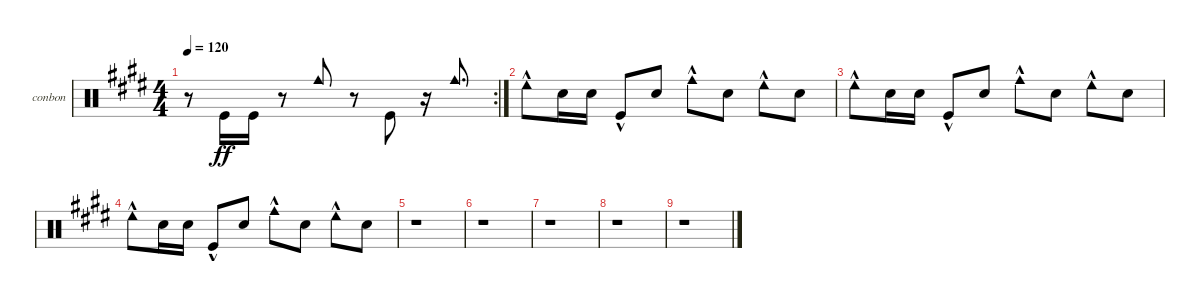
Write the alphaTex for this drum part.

\defaultSystemsLayout 4
\bracketExtendMode groupsimilarinstruments
\firstSystemTrackNameOrientation horizontal
\otherSystemsTrackNameOrientation horizontal
\track ("Bongos N Congas" "conbon") {instrument percussion}
\staff {score}
\articulation defaults
\rc 2
\ts (4 4)
\tempo 120
\clef neutral
\scale
0.355932
\ks e
r.8{dy ff beam invert} "Kick (hit)".16{beam invert} "Kick (hit)".16 r.8{beam invert} "Cowbell medium (hit)".8{beam invert} r.8{beam invert} "Kick (hit)".8{beam invert} r.16{beam invert} "Cowbell medium (hit)".8{d beam invert} |
\scale
0.322034 "Cowbell low (hit)"{hac}.8 "Snare (hit) 2".16 "Snare (hit) 2".16 "Kick (hit)"{hac}.8 "Snare (hit) 2".8 "Cowbell medium (hit)"{hac}.8 "Snare (hit) 2".8 "Cowbell low (hit)"{hac}.8 "Snare (hit) 2".8 |
\scale
0.333333 "Cowbell low (hit)"{hac}.8 "Snare (hit) 2".16 "Snare (hit) 2".16 "Kick (hit)"{hac}.8 "Snare (hit) 2".8 "Cowbell medium (hit)"{hac}.8 "Snare (hit) 2".8 "Cowbell low (hit)"{hac}.8 "Snare (hit) 2".8 |
\scale
0.333333 "Cowbell low (hit)"{hac}.8 "Snare (hit) 2".16 "Snare (hit) 2".16 "Kick (hit)"{hac}.8 "Snare (hit) 2".8 "Cowbell medium (hit)"{hac}.8 "Snare (hit) 2".8 "Cowbell low (hit)"{hac}.8 "Snare (hit) 2".8 |
\scale
0.333333 r.1 |
\scale
0.333333 r.1 |
\scale
0.333333 r.1 |
\scale
0.333333 r.1 |
r.1
